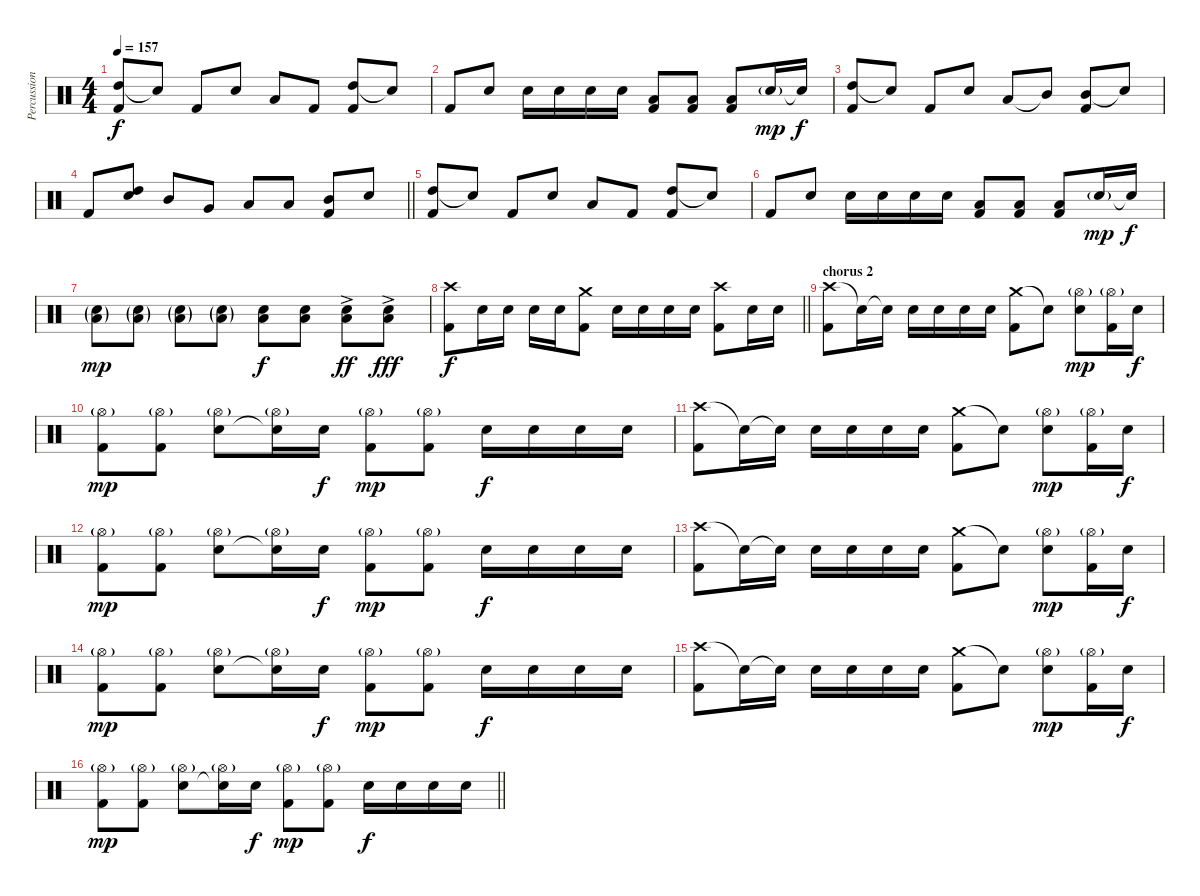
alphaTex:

\track ("Percussion" "Percussion") {instrument percussion}
\staff {score}
\articulation defaults
\ts (4 4)
\tempo 157
\clef neutral
\ks c
("High Tom (hit)" "Kick (hit) 2").8{dy f} "Snare (hit)"{t}.8 "Kick (hit) 2".8 "Electric Snare (hit)".8 "Low Tom (hit)".8 "Kick (hit) 2".8 ("High Tom (hit)" "Kick (hit) 2").8 "Snare (hit)"{t}.8 |
"Kick (hit) 2".8 "Electric Snare (hit)".8 "Electric Snare (hit)".16 "Electric Snare (hit)".16 "Electric Snare (hit)".16 "Electric Snare (hit)".16 ("Low Tom (hit)" "Kick (hit) 2").8 ("Low Tom (hit)" "Kick (hit) 2").8 ("Low Tom (hit)" "Kick (hit) 2").8 "Electric Snare (hit)"{g}.16{dy mp} "Snare (hit)"{t}.16{dy f} |
("High Tom (hit)" "Kick (hit) 2").8 "Snare (hit)"{t}.8 "Kick (hit) 2".8 "Electric Snare (hit)".8 "Low Tom (hit)".8 "Mid Tom (hit)"{t}.8 ("Mid Tom (hit)" "Kick (hit) 2").8 "Snare (hit)"{t}.8 |
\barLineRight lightlight "Kick (hit) 2".8
("High Tom (hit)" "Electric Snare (hit)").8 "Mid Tom (hit)".8 "Very Low Tom (hit)".8 "Low Tom (hit)".8 "Low Floor Tom (hit)".8 ("Mid Tom (hit)" "Kick (hit) 2").8 "Electric Snare (hit)".8 |
("High Tom (hit)" "Kick (hit) 2").8 "Snare (hit)"{t}.8 "Kick (hit) 2".8 "Electric Snare (hit)".8 "Low Tom (hit)".8 "Kick (hit) 2".8 ("High Tom (hit)" "Kick (hit) 2").8 "Snare (hit)"{t}.8 |
"Kick (hit) 2".8 "Electric Snare (hit)".8 "Electric Snare (hit)".16 "Electric Snare (hit)".16 "Electric Snare (hit)".16 "Electric Snare (hit)".16 ("Low Tom (hit)" "Kick (hit) 2").8 ("Low Tom (hit)" "Kick (hit) 2").8 ("Low Tom (hit)" "Kick (hit) 2").8 "Electric Snare (hit)"{g}.16{dy mp} "Snare (hit)"{t}.16{dy f} |
("Low Floor Tom (hit)"{g} "Electric Snare (hit)"{g}).8{dy mp} ("Low Floor Tom (hit)"{g} "Electric Snare (hit)"{g}).8 ("Low Floor Tom (hit)"{g} "Electric Snare (hit)"{g}).8 ("Low Floor Tom (hit)"{g} "Electric Snare (hit)"{g}).8 ("Low Floor Tom (hit)" "Electric Snare (hit)").8{dy f} ("Low Floor Tom (hit)" "Electric Snare (hit)").8 ("Low Floor Tom (hit)"{ac} "Electric Snare (hit)"{ac}).8{dy ff} ("Low Floor Tom (hit)"{ac} "Electric Snare (hit)"{ac}).8{dy fff} |
\barLineRight lightlight
("Crash high (hit)" "Kick (hit) 2").8{dy f} "Electric Snare (hit)".16 "Electric Snare (hit)".16 "Electric Snare (hit)".16 "Electric Snare (hit)".16 ("Crash medium (hit)" "Kick (hit) 2").8 "Electric Snare (hit)".16 "Electric Snare (hit)".16 "Electric Snare (hit)".16 "Electric Snare (hit)".16 ("Crash high (hit)" "Kick (hit) 2").8 "Electric Snare (hit)".16 "Electric Snare (hit)".16 |
\section ("" "chorus 2")
("Crash high (hit)" "Kick (hit) 2").8 "Electric Snare (hit)"{t}.16 "Electric Snare (hit)"{t}.16 "Electric Snare (hit)".16 "Electric Snare (hit)".16 "Electric Snare (hit)".16 "Electric Snare (hit)".16 ("Crash medium (hit)" "Kick (hit) 2").8 "Snare (hit)"{t}.8 ("Hi-Hat (open)"{g} "Electric Snare (hit)").8{dy mp} ("Hi-Hat (open)"{g} "Kick (hit) 2").16 "Electric Snare (hit)".16{dy f} |
("Hi-Hat (open)"{g} "Kick (hit) 2").8{dy mp} ("Hi-Hat (open)"{g} "Kick (hit) 2").8 ("Hi-Hat (open)"{g} "Electric Snare (hit)").8 ("Hi-Hat (open)"{g} "Snare (hit)"{t}).16 "Electric Snare (hit)".16{dy f} ("Hi-Hat (open)"{g} "Kick (hit) 2").8{dy mp} ("Hi-Hat (open)"{g} "Kick (hit) 2").8 "Electric Snare (hit)".16{dy f} "Electric Snare (hit)".16 "Electric Snare (hit)".16 "Electric Snare (hit)".16 |
("Crash high (hit)" "Kick (hit) 2").8 "Electric Snare (hit)"{t}.16 "Electric Snare (hit)"{t}.16 "Electric Snare (hit)".16 "Electric Snare (hit)".16 "Electric Snare (hit)".16 "Electric Snare (hit)".16 ("Crash medium (hit)" "Kick (hit) 2").8 "Snare (hit)"{t}.8 ("Hi-Hat (open)"{g} "Electric Snare (hit)").8{dy mp} ("Hi-Hat (open)"{g} "Kick (hit) 2").16 "Electric Snare (hit)".16{dy f} |
("Hi-Hat (open)"{g} "Kick (hit) 2").8{dy mp} ("Hi-Hat (open)"{g} "Kick (hit) 2").8 ("Hi-Hat (open)"{g} "Electric Snare (hit)").8 ("Hi-Hat (open)"{g} "Snare (hit)"{t}).16 "Electric Snare (hit)".16{dy f} ("Hi-Hat (open)"{g} "Kick (hit) 2").8{dy mp} ("Hi-Hat (open)"{g} "Kick (hit) 2").8 "Electric Snare (hit)".16{dy f} "Electric Snare (hit)".16 "Electric Snare (hit)".16 "Electric Snare (hit)".16 |
("Crash high (hit)" "Kick (hit) 2").8 "Electric Snare (hit)"{t}.16 "Electric Snare (hit)"{t}.16 "Electric Snare (hit)".16 "Electric Snare (hit)".16 "Electric Snare (hit)".16 "Electric Snare (hit)".16 ("Crash medium (hit)" "Kick (hit) 2").8 "Snare (hit)"{t}.8 ("Hi-Hat (open)"{g} "Electric Snare (hit)").8{dy mp} ("Hi-Hat (open)"{g} "Kick (hit) 2").16 "Electric Snare (hit)".16{dy f} |
("Hi-Hat (open)"{g} "Kick (hit) 2").8{dy mp} ("Hi-Hat (open)"{g} "Kick (hit) 2").8 ("Hi-Hat (open)"{g} "Electric Snare (hit)").8 ("Hi-Hat (open)"{g} "Snare (hit)"{t}).16 "Electric Snare (hit)".16{dy f} ("Hi-Hat (open)"{g} "Kick (hit) 2").8{dy mp} ("Hi-Hat (open)"{g} "Kick (hit) 2").8 "Electric Snare (hit)".16{dy f} "Electric Snare (hit)".16 "Electric Snare (hit)".16 "Electric Snare (hit)".16 |
("Crash high (hit)" "Kick (hit) 2").8 "Electric Snare (hit)"{t}.16 "Electric Snare (hit)"{t}.16 "Electric Snare (hit)".16 "Electric Snare (hit)".16 "Electric Snare (hit)".16 "Electric Snare (hit)".16 ("Crash medium (hit)" "Kick (hit) 2").8 "Snare (hit)"{t}.8 ("Hi-Hat (open)"{g} "Electric Snare (hit)").8{dy mp} ("Hi-Hat (open)"{g} "Kick (hit) 2").16 "Electric Snare (hit)".16{dy f} |
\barLineRight lightlight
("Hi-Hat (open)"{g} "Kick (hit) 2").8{dy mp} ("Hi-Hat (open)"{g} "Kick (hit) 2").8 ("Hi-Hat (open)"{g} "Electric Snare (hit)").8 ("Hi-Hat (open)"{g} "Snare (hit)"{t}).16 "Electric Snare (hit)".16{dy f} ("Hi-Hat (open)"{g} "Kick (hit) 2").8{dy mp} ("Hi-Hat (open)"{g} "Kick (hit) 2").8 "Electric Snare (hit)".16{dy f} "Electric Snare (hit)".16 "Electric Snare (hit)".16 "Electric Snare (hit)".16
